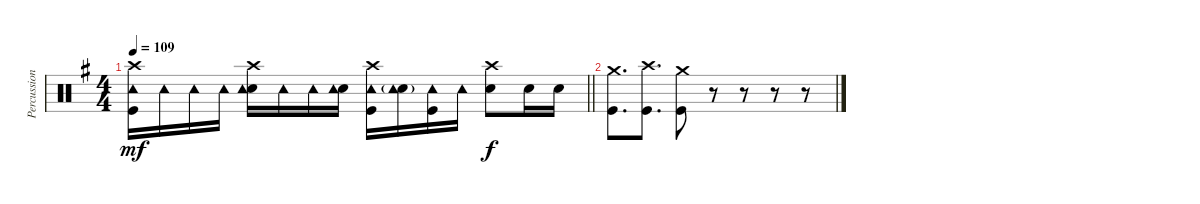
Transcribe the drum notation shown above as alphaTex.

\track ("Percussion" "Percussion") {instrument percussion}
\staff {score}
\articulation defaults
\ts (4 4)
\tempo 109
\clef neutral
\barLineRight lightlight
\ks g
("Crash high (hit)" "Tambourine (hit)" "Kick (hit)").16{dy mf} "Tambourine (hit)".16 "Tambourine (hit)".16 "Tambourine (hit)".16 ("Crash high (hit)" "Electric Snare (hit)" "Tambourine (hit)").16 "Tambourine (hit)".16 "Tambourine (hit)".16 ("Electric Snare (hit)" "Tambourine (hit)").16 ("Crash high (hit)" "Tambourine (hit)" "Kick (hit)").16 ("Electric Snare (hit)"{g} "Tambourine (hit)").16 ("Tambourine (hit)" "Kick (hit)").16 "Tambourine (hit)".16 ("Crash high (hit)" "Electric Snare (hit)").8{dy f} "Electric Snare (hit)".16 "Electric Snare (hit)".16 |
("Crash medium (hit)" "Kick (hit)").8{d} ("Crash high (hit)" "Kick (hit)").8{d} ("Crash medium (hit)" "Kick (hit)").8 r.8 r.8 r.8 r.8
